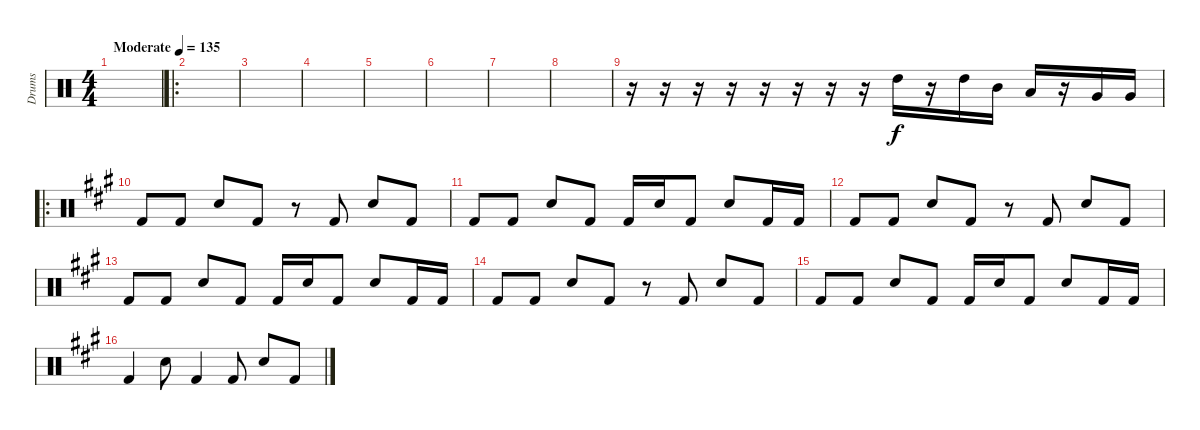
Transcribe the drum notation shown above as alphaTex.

\track ("Drums" "Drums") {instrument percussion}
\staff {score}
\articulation defaults
\ts (4 4)
\tempo (135 "Moderate")
\clef neutral
\ks c
|
\ro
|
|
|
|
|
|
|
r.16 r.16 r.16 r.16 r.16 r.16 r.16 r.16 "High Tom (hit)".16 r.16 "High Tom (hit)".16 "Mid Tom (hit)".16 "Low Tom (hit)".16 r.16 "Very Low Tom (hit)".16 "Very Low Tom (hit)".16 |
\ro
\ks a "Kick (hit) 2".8 "Kick (hit) 2".8 "Snare (hit) 2".8 "Kick (hit) 2".8
r.8 "Kick (hit) 2".8 "Snare (hit) 2".8 "Kick (hit) 2".8 |
"Kick (hit) 2".8 "Kick (hit) 2".8 "Snare (hit) 2".8 "Kick (hit) 2".8 "Kick (hit) 2".16 "Snare (hit) 2".16 "Kick (hit) 2".8 "Snare (hit) 2".8 "Kick (hit) 2".16 "Kick (hit) 2".16 |
"Kick (hit) 2".8 "Kick (hit) 2".8 "Snare (hit) 2".8 "Kick (hit) 2".8 r.8 "Kick (hit) 2".8 "Snare (hit) 2".8 "Kick (hit) 2".8 |
"Kick (hit) 2".8 "Kick (hit) 2".8 "Snare (hit) 2".8 "Kick (hit) 2".8 "Kick (hit) 2".16 "Snare (hit) 2".16 "Kick (hit) 2".8 "Snare (hit) 2".8 "Kick (hit) 2".16 "Kick (hit) 2".16 |
"Kick (hit) 2".8 "Kick (hit) 2".8 "Snare (hit) 2".8 "Kick (hit) 2".8 r.8 "Kick (hit) 2".8 "Snare (hit) 2".8 "Kick (hit) 2".8 |
"Kick (hit) 2".8 "Kick (hit) 2".8 "Snare (hit) 2".8 "Kick (hit) 2".8 "Kick (hit) 2".16 "Snare (hit) 2".16 "Kick (hit) 2".8 "Snare (hit) 2".8 "Kick (hit) 2".16 "Kick (hit) 2".16 |
"Kick (hit) 2".4 "Snare (hit) 2".8 "Kick (hit) 2".4 "Kick (hit) 2".8 "Snare (hit) 2".8 "Kick (hit) 2".8
